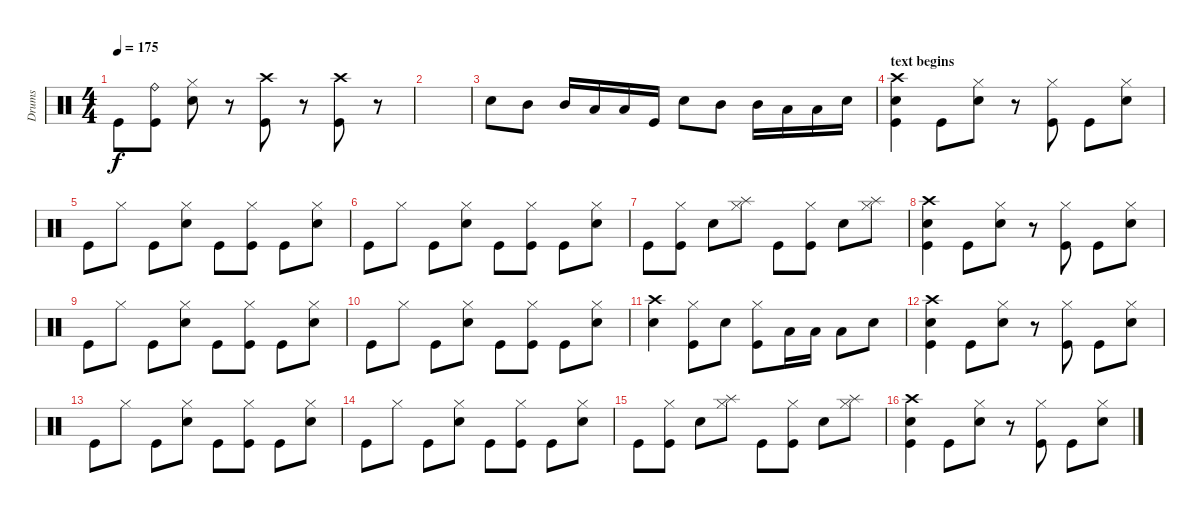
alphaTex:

\track ("Drums" "Drums") {instrument percussion}
\staff {score}
\articulation defaults
\ts (4 4)
\tempo 175
\clef neutral
\ks c "Kick (hit)".8{dy f}
("Ride (bell)" "Kick (hit)").8 ("Hi-Hat (closed)" "Electric Snare (hit)").8 r.8 ("Crash high (hit)" "Kick (hit)").8 r.8 ("Crash high (hit)" "Kick (hit)").8 r.8 |
|
"Electric Snare (hit)".8 "Mid Tom (hit)".8 "Mid Tom (hit)".16 "Low Tom (hit)".16 "Low Tom (hit)".16 "Kick (hit)".16 "Electric Snare (hit)".8 "Mid Tom (hit)".8 "Mid Tom (hit)".16 "Low Tom (hit)".16 "Low Tom (hit)".16 "Electric Snare (hit)".16 |
\section ("" "text begins")
("Crash high (hit)" "Electric Snare (hit)" "Kick (hit)").4 "Kick (hit)".8 ("Hi-Hat (closed)" "Electric Snare (hit)").8 r.8 ("Hi-Hat (closed)" "Kick (hit)").8 "Kick (hit)".8 ("Hi-Hat (closed)" "Electric Snare (hit)").8 |
"Kick (hit)".8 "Hi-Hat (closed)".8 "Kick (hit)".8 ("Hi-Hat (closed)" "Electric Snare (hit)").8 "Kick (hit)".8 ("Hi-Hat (closed)" "Kick (hit)").8 "Kick (hit)".8 ("Hi-Hat (closed)" "Electric Snare (hit)").8 |
"Kick (hit)".8 "Hi-Hat (closed)".8 "Kick (hit)".8 ("Hi-Hat (closed)" "Electric Snare (hit)").8 "Kick (hit)".8 ("Hi-Hat (closed)" "Kick (hit)").8 "Kick (hit)".8 ("Hi-Hat (closed)" "Electric Snare (hit)").8 |
"Kick (hit)".8 ("Hi-Hat (closed)" "Kick (hit)").8 "Electric Snare (hit)".8 ("Hi-Hat (closed)" "Splash (hit)").8 "Kick (hit)".8 ("Hi-Hat (closed)" "Kick (hit)").8 "Electric Snare (hit)".8 ("Hi-Hat (closed)" "Splash (hit)").8 |
("Crash high (hit)" "Electric Snare (hit)" "Kick (hit)").4 "Kick (hit)".8 ("Hi-Hat (closed)" "Electric Snare (hit)").8 r.8 ("Hi-Hat (closed)" "Kick (hit)").8 "Kick (hit)".8 ("Hi-Hat (closed)" "Electric Snare (hit)").8 |
"Kick (hit)".8 "Hi-Hat (closed)".8 "Kick (hit)".8 ("Hi-Hat (closed)" "Electric Snare (hit)").8 "Kick (hit)".8 ("Hi-Hat (closed)" "Kick (hit)").8 "Kick (hit)".8 ("Hi-Hat (closed)" "Electric Snare (hit)").8 |
"Kick (hit)".8 "Hi-Hat (closed)".8 "Kick (hit)".8 ("Hi-Hat (closed)" "Electric Snare (hit)").8 "Kick (hit)".8 ("Hi-Hat (closed)" "Kick (hit)").8 "Kick (hit)".8 ("Hi-Hat (closed)" "Electric Snare (hit)").8 |
("Crash high (hit)" "Electric Snare (hit)").4 ("Hi-Hat (closed)" "Kick (hit)").8 "Electric Snare (hit)".8 ("Hi-Hat (closed)" "Kick (hit)").8 "Low Tom (hit)".16 "Low Tom (hit)".16 "Low Tom (hit)".8 "Electric Snare (hit)".8 |
("Crash high (hit)" "Electric Snare (hit)" "Kick (hit)").4 "Kick (hit)".8 ("Hi-Hat (closed)" "Electric Snare (hit)").8 r.8 ("Hi-Hat (closed)" "Kick (hit)").8 "Kick (hit)".8 ("Hi-Hat (closed)" "Electric Snare (hit)").8 |
"Kick (hit)".8 "Hi-Hat (closed)".8 "Kick (hit)".8 ("Hi-Hat (closed)" "Electric Snare (hit)").8 "Kick (hit)".8 ("Hi-Hat (closed)" "Kick (hit)").8 "Kick (hit)".8 ("Hi-Hat (closed)" "Electric Snare (hit)").8 |
"Kick (hit)".8 "Hi-Hat (closed)".8 "Kick (hit)".8 ("Hi-Hat (closed)" "Electric Snare (hit)").8 "Kick (hit)".8 ("Hi-Hat (closed)" "Kick (hit)").8 "Kick (hit)".8 ("Hi-Hat (closed)" "Electric Snare (hit)").8 |
"Kick (hit)".8 ("Hi-Hat (closed)" "Kick (hit)").8 "Electric Snare (hit)".8 ("Hi-Hat (closed)" "Splash (hit)").8 "Kick (hit)".8 ("Hi-Hat (closed)" "Kick (hit)").8 "Electric Snare (hit)".8 ("Hi-Hat (closed)" "Splash (hit)").8 |
("Crash high (hit)" "Electric Snare (hit)" "Kick (hit)").4 "Kick (hit)".8 ("Hi-Hat (closed)" "Electric Snare (hit)").8 r.8 ("Hi-Hat (closed)" "Kick (hit)").8 "Kick (hit)".8 ("Hi-Hat (closed)" "Electric Snare (hit)").8
